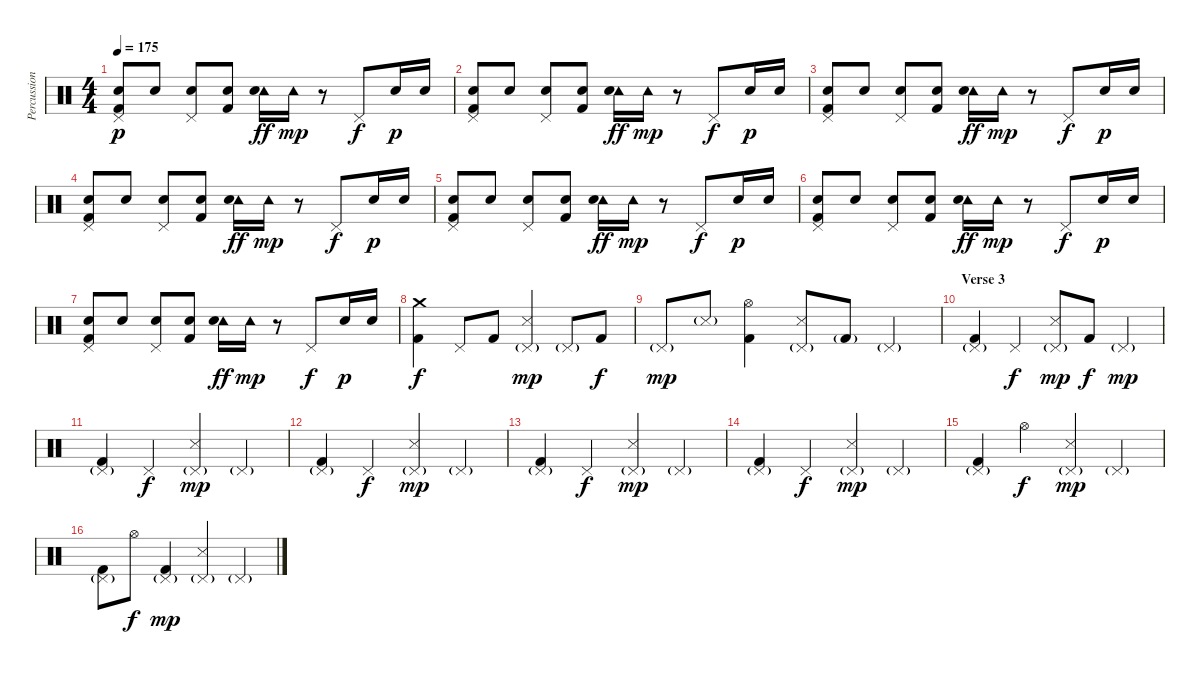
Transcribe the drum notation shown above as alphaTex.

\track ("Percussion" "Percussion") {instrument percussion}
\staff {score}
\articulation defaults
\ts (4 4)
\tempo 175
\clef neutral
\ks c
("Pedal Hi-Hat (hit)" "Snare (hit) 2" "Kick (hit) 2").8{dy p} "Snare (hit) 2".8 ("Pedal Hi-Hat (hit)" "Snare (hit) 2").8 ("Snare (hit) 2" "Kick (hit) 2").8 ("Tambourine (hit)" "Electric Snare (hit)").16{dy ff} "Tambourine (hit)".16{dy mp} r.8 "Pedal Hi-Hat (hit)".8{dy f} "Snare (hit) 2".16{dy p} "Snare (hit) 2".16 |
("Pedal Hi-Hat (hit)" "Snare (hit) 2" "Kick (hit) 2").8 "Snare (hit) 2".8 ("Pedal Hi-Hat (hit)" "Snare (hit) 2").8 ("Snare (hit) 2" "Kick (hit) 2").8 ("Tambourine (hit)" "Electric Snare (hit)").16{dy ff} "Tambourine (hit)".16{dy mp} r.8 "Pedal Hi-Hat (hit)".8{dy f} "Snare (hit) 2".16{dy p} "Snare (hit) 2".16 |
("Pedal Hi-Hat (hit)" "Snare (hit) 2" "Kick (hit) 2").8 "Snare (hit) 2".8 ("Pedal Hi-Hat (hit)" "Snare (hit) 2").8 ("Snare (hit) 2" "Kick (hit) 2").8 ("Tambourine (hit)" "Electric Snare (hit)").16{dy ff} "Tambourine (hit)".16{dy mp} r.8 "Pedal Hi-Hat (hit)".8{dy f} "Snare (hit) 2".16{dy p} "Snare (hit) 2".16 |
("Pedal Hi-Hat (hit)" "Snare (hit) 2" "Kick (hit) 2").8 "Snare (hit) 2".8 ("Pedal Hi-Hat (hit)" "Snare (hit) 2").8 ("Snare (hit) 2" "Kick (hit) 2").8 ("Tambourine (hit)" "Electric Snare (hit)").16{dy ff} "Tambourine (hit)".16{dy mp} r.8 "Pedal Hi-Hat (hit)".8{dy f} "Snare (hit) 2".16{dy p} "Snare (hit) 2".16 |
("Pedal Hi-Hat (hit)" "Snare (hit) 2" "Kick (hit) 2").8 "Snare (hit) 2".8 ("Pedal Hi-Hat (hit)" "Snare (hit) 2").8 ("Snare (hit) 2" "Kick (hit) 2").8 ("Tambourine (hit)" "Electric Snare (hit)").16{dy ff} "Tambourine (hit)".16{dy mp} r.8 "Pedal Hi-Hat (hit)".8{dy f} "Snare (hit) 2".16{dy p} "Snare (hit) 2".16 |
("Pedal Hi-Hat (hit)" "Snare (hit) 2" "Kick (hit) 2").8 "Snare (hit) 2".8 ("Pedal Hi-Hat (hit)" "Snare (hit) 2").8 ("Snare (hit) 2" "Kick (hit) 2").8 ("Tambourine (hit)" "Electric Snare (hit)").16{dy ff} "Tambourine (hit)".16{dy mp} r.8 "Pedal Hi-Hat (hit)".8{dy f} "Snare (hit) 2".16{dy p} "Snare (hit) 2".16 |
("Pedal Hi-Hat (hit)" "Snare (hit) 2" "Kick (hit) 2").8 "Snare (hit) 2".8 ("Pedal Hi-Hat (hit)" "Snare (hit) 2").8 ("Snare (hit) 2" "Kick (hit) 2").8 ("Tambourine (hit)" "Electric Snare (hit)").16{dy ff} "Tambourine (hit)".16{dy mp} r.8 "Pedal Hi-Hat (hit)".8{dy f} "Snare (hit) 2".16{dy p} "Snare (hit) 2".16 |
("Crash medium (hit)" "Kick (hit) 2").4{dy f} "Pedal Hi-Hat (hit)".8 "Kick (hit) 2".8 ("Pedal Hi-Hat (hit)"{g} "Snare (side stick) 3").4{dy mp} "Pedal Hi-Hat (hit)"{g}.8 "Kick (hit) 2".8{dy f} |
"Pedal Hi-Hat (hit)"{g}.8{dy mp} "Snare (side stick) 3"{g}.8 ("Hi-Hat (open)" "Kick (hit) 2").4 ("Pedal Hi-Hat (hit)"{g} "Snare (side stick) 3").8 "Kick (hit) 2"{g}.8 "Pedal Hi-Hat (hit)"{g}.4 |
\section ("" "Verse 3")
("Pedal Hi-Hat (hit)"{g} "Kick (hit) 2").4 "Pedal Hi-Hat (hit)".4{dy f} ("Pedal Hi-Hat (hit)"{g} "Snare (side stick) 3").8{dy mp} "Kick (hit) 2".8{dy f} "Pedal Hi-Hat (hit)"{g}.4{dy mp} |
("Pedal Hi-Hat (hit)"{g} "Kick (hit) 2").4 "Pedal Hi-Hat (hit)".4{dy f} ("Pedal Hi-Hat (hit)"{g} "Snare (side stick) 3").4{dy mp} "Pedal Hi-Hat (hit)"{g}.4 |
("Pedal Hi-Hat (hit)"{g} "Kick (hit) 2").4 "Pedal Hi-Hat (hit)".4{dy f} ("Pedal Hi-Hat (hit)"{g} "Snare (side stick) 3").4{dy mp} "Pedal Hi-Hat (hit)"{g}.4 |
("Pedal Hi-Hat (hit)"{g} "Kick (hit) 2").4 "Pedal Hi-Hat (hit)".4{dy f} ("Pedal Hi-Hat (hit)"{g} "Snare (side stick) 3").4{dy mp} "Pedal Hi-Hat (hit)"{g}.4 |
("Pedal Hi-Hat (hit)"{g} "Kick (hit) 2").4 "Pedal Hi-Hat (hit)".4{dy f} ("Pedal Hi-Hat (hit)"{g} "Snare (side stick) 3").4{dy mp} "Pedal Hi-Hat (hit)"{g}.4 |
("Pedal Hi-Hat (hit)"{g} "Kick (hit) 2").4 "Hi-Hat (open)".4{dy f} ("Pedal Hi-Hat (hit)"{g} "Snare (side stick) 3").4{dy mp} "Pedal Hi-Hat (hit)"{g}.4 |
("Pedal Hi-Hat (hit)"{g} "Kick (hit) 2").8 "Hi-Hat (open)".8{dy f} ("Pedal Hi-Hat (hit)"{g} "Kick (hit) 2").4{dy mp} ("Pedal Hi-Hat (hit)"{g} "Snare (side stick) 3").4 "Pedal Hi-Hat (hit)"{g}.4
